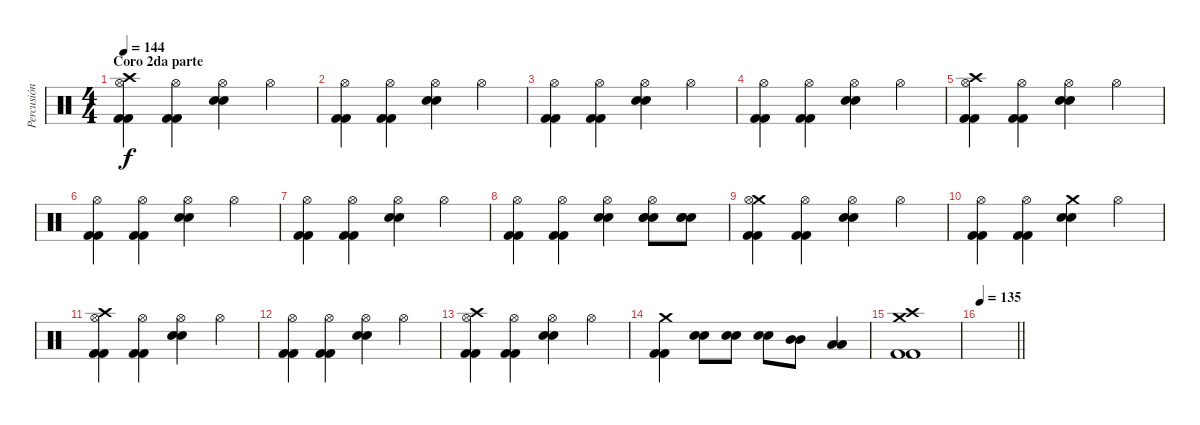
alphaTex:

\track ("Percusión" "Percusión") {instrument percussion}
\staff {score}
\articulation defaults
\ts (4 4)
\section ("" "Coro 2da parte")
\tempo 144
\clef neutral
\ks c
("Crash high (hit)" "Hi-Hat (open)" "Kick (hit) 2" "Kick (hit) 2").4{dy f} ("Hi-Hat (open)" "Kick (hit) 2" "Kick (hit) 2").4 ("Hi-Hat (open)" "Electric Snare (hit)" "Electric Snare (hit)").4 "Hi-Hat (open)".4 |
("Hi-Hat (open)" "Kick (hit) 2" "Kick (hit) 2").4 ("Hi-Hat (open)" "Kick (hit) 2" "Kick (hit) 2").4 ("Hi-Hat (open)" "Electric Snare (hit)" "Electric Snare (hit)").4 "Hi-Hat (open)".4 |
("Hi-Hat (open)" "Kick (hit) 2" "Kick (hit) 2").4 ("Hi-Hat (open)" "Kick (hit) 2" "Kick (hit) 2").4 ("Hi-Hat (open)" "Electric Snare (hit)" "Electric Snare (hit)").4 "Hi-Hat (open)".4 |
("Hi-Hat (open)" "Kick (hit) 2" "Kick (hit) 2").4 ("Hi-Hat (open)" "Kick (hit) 2" "Kick (hit) 2").4 ("Hi-Hat (open)" "Electric Snare (hit)" "Electric Snare (hit)").4 "Hi-Hat (open)".4 |
("Crash high (hit)" "Hi-Hat (open)" "Kick (hit) 2" "Kick (hit) 2").4 ("Hi-Hat (open)" "Kick (hit) 2" "Kick (hit) 2").4 ("Hi-Hat (open)" "Electric Snare (hit)" "Electric Snare (hit)").4 "Hi-Hat (open)".4 |
("Hi-Hat (open)" "Kick (hit) 2" "Kick (hit) 2").4 ("Hi-Hat (open)" "Kick (hit) 2" "Kick (hit) 2").4 ("Hi-Hat (open)" "Electric Snare (hit)" "Electric Snare (hit)").4 "Hi-Hat (open)".4 |
("Hi-Hat (open)" "Kick (hit) 2" "Kick (hit) 2").4 ("Hi-Hat (open)" "Kick (hit) 2" "Kick (hit) 2").4 ("Hi-Hat (open)" "Electric Snare (hit)" "Electric Snare (hit)").4 "Hi-Hat (open)".4 |
("Hi-Hat (open)" "Kick (hit) 2" "Kick (hit) 2").4 ("Hi-Hat (open)" "Kick (hit) 2" "Kick (hit) 2").4 ("Hi-Hat (open)" "Electric Snare (hit)" "Electric Snare (hit)").4 ("Hi-Hat (open)" "Electric Snare (hit)" "Electric Snare (hit)" "Electric Snare (hit)").8 ("Electric Snare (hit)" "Electric Snare (hit)" "Electric Snare (hit)").8 |
("Crash medium (hit)" "Hi-Hat (open)" "Kick (hit) 2" "Kick (hit) 2").4 ("Hi-Hat (open)" "Kick (hit) 2" "Kick (hit) 2").4 ("Hi-Hat (open)" "Electric Snare (hit)" "Electric Snare (hit)").4 "Hi-Hat (open)".4 |
("Hi-Hat (open)" "Kick (hit) 2" "Kick (hit) 2").4 ("Hi-Hat (open)" "Kick (hit) 2" "Kick (hit) 2").4 ("Crash medium (hit)" "Electric Snare (hit)" "Electric Snare (hit)").4 "Hi-Hat (open)".4 |
("Crash high (hit)" "Hi-Hat (open)" "Kick (hit) 2" "Kick (hit) 2").4 ("Hi-Hat (open)" "Kick (hit) 2" "Kick (hit) 2").4 ("Hi-Hat (open)" "Electric Snare (hit)" "Electric Snare (hit)").4 "Hi-Hat (open)".4 |
("Hi-Hat (open)" "Kick (hit) 2" "Kick (hit) 2").4 ("Hi-Hat (open)" "Kick (hit) 2" "Kick (hit) 2").4 ("Hi-Hat (open)" "Electric Snare (hit)" "Electric Snare (hit)").4 "Hi-Hat (open)".4 |
("Crash high (hit)" "Hi-Hat (open)" "Kick (hit) 2" "Kick (hit) 2").4 ("Hi-Hat (open)" "Kick (hit) 2" "Kick (hit) 2").4 ("Hi-Hat (open)" "Electric Snare (hit)" "Electric Snare (hit)").4 "Hi-Hat (open)".4 |
("Crash medium (hit)" "Kick (hit) 2" "Kick (hit) 2").4 ("Electric Snare (hit)" "Electric Snare (hit)").8 ("Electric Snare (hit)" "Electric Snare (hit)").8 ("Electric Snare (hit)" "Electric Snare (hit)").8 ("Mid Tom (hit)" "Mid Tom (hit)").8 ("Low Tom (hit)" "Low Tom (hit)").4 |
("Crash medium (hit)" "Crash high (hit)" "Kick (hit) 2" "Kick (hit) 2").1 |
\tempo 135
\barLineRight lightlight
